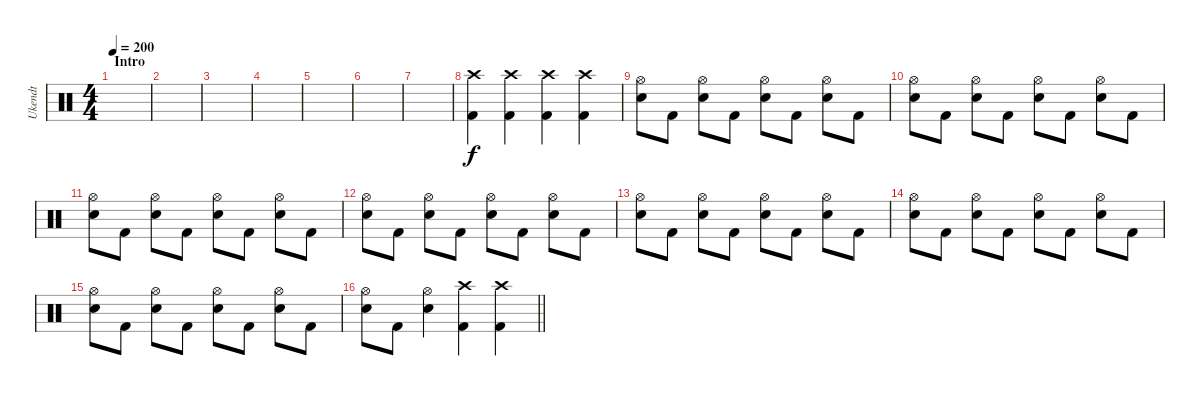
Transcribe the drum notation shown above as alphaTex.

\track ("Ukendt" "Ukendt") {instrument percussion}
\staff {score}
\articulation defaults
\ts (4 4)
\section ("" "Intro")
\tempo 200
\clef neutral
\ks c
|
|
|
|
|
|
|
("Kick (hit) 2" "Crash high (hit)").4 ("Kick (hit) 2" "Crash high (hit)").4 ("Kick (hit) 2" "Crash high (hit)").4 ("Kick (hit) 2" "Crash high (hit)").4 |
("Hi-Hat (open)" "Snare (hit) 2").8 "Kick (hit) 2".8 ("Hi-Hat (open)" "Snare (hit) 2").8 "Kick (hit) 2".8 ("Hi-Hat (open)" "Snare (hit) 2").8 "Kick (hit) 2".8 ("Hi-Hat (open)" "Snare (hit) 2").8 "Kick (hit) 2".8 |
("Hi-Hat (open)" "Snare (hit) 2").8 "Kick (hit) 2".8 ("Hi-Hat (open)" "Snare (hit) 2").8 "Kick (hit) 2".8 ("Hi-Hat (open)" "Snare (hit) 2").8 "Kick (hit) 2".8 ("Hi-Hat (open)" "Snare (hit) 2").8 "Kick (hit) 2".8 |
("Hi-Hat (open)" "Snare (hit) 2").8 "Kick (hit) 2".8 ("Hi-Hat (open)" "Snare (hit) 2").8 "Kick (hit) 2".8 ("Hi-Hat (open)" "Snare (hit) 2").8 "Kick (hit) 2".8 ("Hi-Hat (open)" "Snare (hit) 2").8 "Kick (hit) 2".8 |
("Hi-Hat (open)" "Snare (hit) 2").8 "Kick (hit) 2".8 ("Hi-Hat (open)" "Snare (hit) 2").8 "Kick (hit) 2".8 ("Hi-Hat (open)" "Snare (hit) 2").8 "Kick (hit) 2".8 ("Hi-Hat (open)" "Snare (hit) 2").8 "Kick (hit) 2".8 |
("Hi-Hat (open)" "Snare (hit) 2").8 "Kick (hit) 2".8 ("Hi-Hat (open)" "Snare (hit) 2").8 "Kick (hit) 2".8 ("Hi-Hat (open)" "Snare (hit) 2").8 "Kick (hit) 2".8 ("Hi-Hat (open)" "Snare (hit) 2").8 "Kick (hit) 2".8 |
("Hi-Hat (open)" "Snare (hit) 2").8 "Kick (hit) 2".8 ("Hi-Hat (open)" "Snare (hit) 2").8 "Kick (hit) 2".8 ("Hi-Hat (open)" "Snare (hit) 2").8 "Kick (hit) 2".8 ("Hi-Hat (open)" "Snare (hit) 2").8 "Kick (hit) 2".8 |
("Hi-Hat (open)" "Snare (hit) 2").8 "Kick (hit) 2".8 ("Hi-Hat (open)" "Snare (hit) 2").8 "Kick (hit) 2".8 ("Hi-Hat (open)" "Snare (hit) 2").8 "Kick (hit) 2".8 ("Hi-Hat (open)" "Snare (hit) 2").8 "Kick (hit) 2".8 |
\barLineRight lightlight
("Hi-Hat (open)" "Snare (hit) 2").8 "Kick (hit) 2".8 ("Hi-Hat (open)" "Snare (hit) 2").4 ("Kick (hit) 2" "Crash high (hit)").4 ("Kick (hit) 2" "Crash high (hit)").4
